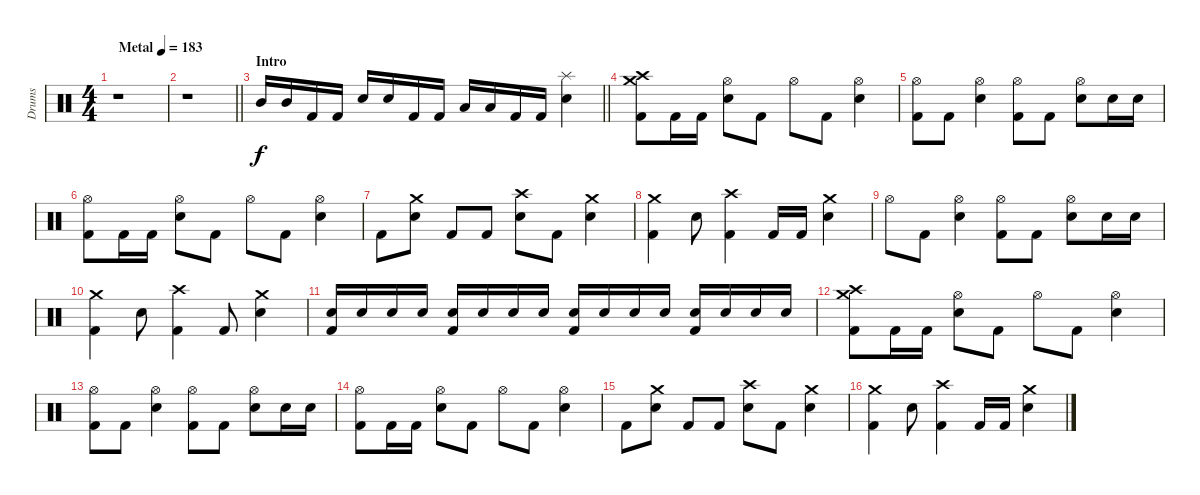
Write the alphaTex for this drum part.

\track ("Drums" "Drums") {instrument percussion}
\staff {score}
\articulation defaults
\ts (4 4)
\tempo (183 "Metal")
\clef neutral
\ks c
r.1{dy f} |
\barLineRight lightlight
r.1 |
\section ("" "Intro")
\barLineRight lightlight "Mid Tom (hit)".16 "Mid Tom (hit)".16 "Kick (hit) 2".16 "Kick (hit) 2".16 "Electric Snare (hit)".16 "Electric Snare (hit)".16 "Kick (hit) 2".16 "Kick (hit) 2".16 "Low Tom (hit)".16 "Low Tom (hit)".16 "Kick (hit) 2".16 "Kick (hit) 2".16
("Splash (hit)" "Electric Snare (hit)").4 |
("Crash medium (hit)" "Crash high (hit)" "Kick (hit) 2").8 "Kick (hit) 2".16 "Kick (hit) 2".16 ("Hi-Hat (open)" "Electric Snare (hit)").8 "Kick (hit) 2".8 "Hi-Hat (open)".8 "Kick (hit) 2".8 ("Hi-Hat (open)" "Electric Snare (hit)").4 |
("Hi-Hat (open)" "Kick (hit) 2").8 "Kick (hit) 2".8 ("Hi-Hat (open)" "Electric Snare (hit)").4 ("Hi-Hat (open)" "Kick (hit) 2").8 "Kick (hit) 2".8 ("Hi-Hat (open)" "Electric Snare (hit)").8 "Electric Snare (hit)".16 "Electric Snare (hit)".16 |
("Hi-Hat (open)" "Kick (hit) 2").8 "Kick (hit) 2".16 "Kick (hit) 2".16 ("Hi-Hat (open)" "Electric Snare (hit)").8 "Kick (hit) 2".8 "Hi-Hat (open)".8 "Kick (hit) 2".8 ("Hi-Hat (open)" "Electric Snare (hit)").4 |
"Kick (hit) 2".8 ("Crash medium (hit)" "Electric Snare (hit)").8 "Kick (hit) 2".8 "Kick (hit) 2".8 ("Crash high (hit)" "Electric Snare (hit)").8 "Kick (hit) 2".8 ("Crash medium (hit)" "Electric Snare (hit)").4 |
("Crash medium (hit)" "Kick (hit) 2").4 "Electric Snare (hit)".8 ("Crash high (hit)" "Kick (hit) 2").4 "Kick (hit) 2".16 "Kick (hit) 2".16 ("Crash medium (hit)" "Electric Snare (hit)").4 |
"Hi-Hat (open)".8 "Kick (hit) 2".8 ("Hi-Hat (open)" "Electric Snare (hit)").4 ("Hi-Hat (open)" "Kick (hit) 2").8 "Kick (hit) 2".8 ("Hi-Hat (open)" "Electric Snare (hit)").8 "Electric Snare (hit)".16 "Electric Snare (hit)".16 |
("Crash medium (hit)" "Kick (hit) 2").4 "Electric Snare (hit)".8 ("Crash high (hit)" "Kick (hit) 2").4 "Kick (hit) 2".8 ("Crash medium (hit)" "Electric Snare (hit)").4 |
("Electric Snare (hit)" "Kick (hit) 2").16 "Electric Snare (hit)".16 "Electric Snare (hit)".16 "Electric Snare (hit)".16 ("Electric Snare (hit)" "Kick (hit) 2").16 "Electric Snare (hit)".16 "Electric Snare (hit)".16 "Electric Snare (hit)".16 ("Electric Snare (hit)" "Kick (hit) 2").16 "Electric Snare (hit)".16 "Electric Snare (hit)".16 "Electric Snare (hit)".16 ("Electric Snare (hit)" "Kick (hit) 2").16 "Electric Snare (hit)".16 "Electric Snare (hit)".16 "Electric Snare (hit)".16 |
("Crash medium (hit)" "Crash high (hit)" "Kick (hit) 2").8 "Kick (hit) 2".16 "Kick (hit) 2".16 ("Hi-Hat (open)" "Electric Snare (hit)").8 "Kick (hit) 2".8 "Hi-Hat (open)".8 "Kick (hit) 2".8 ("Hi-Hat (open)" "Electric Snare (hit)").4 |
("Hi-Hat (open)" "Kick (hit) 2").8 "Kick (hit) 2".8 ("Hi-Hat (open)" "Electric Snare (hit)").4 ("Hi-Hat (open)" "Kick (hit) 2").8 "Kick (hit) 2".8 ("Hi-Hat (open)" "Electric Snare (hit)").8 "Electric Snare (hit)".16 "Electric Snare (hit)".16 |
("Hi-Hat (open)" "Kick (hit) 2").8 "Kick (hit) 2".16 "Kick (hit) 2".16 ("Hi-Hat (open)" "Electric Snare (hit)").8 "Kick (hit) 2".8 "Hi-Hat (open)".8 "Kick (hit) 2".8 ("Hi-Hat (open)" "Electric Snare (hit)").4 |
"Kick (hit) 2".8 ("Crash medium (hit)" "Electric Snare (hit)").8 "Kick (hit) 2".8 "Kick (hit) 2".8 ("Crash high (hit)" "Electric Snare (hit)").8 "Kick (hit) 2".8 ("Crash medium (hit)" "Electric Snare (hit)").4 |
("Crash medium (hit)" "Kick (hit) 2").4 "Electric Snare (hit)".8 ("Crash high (hit)" "Kick (hit) 2").4 "Kick (hit) 2".16 "Kick (hit) 2".16 ("Crash medium (hit)" "Electric Snare (hit)").4
